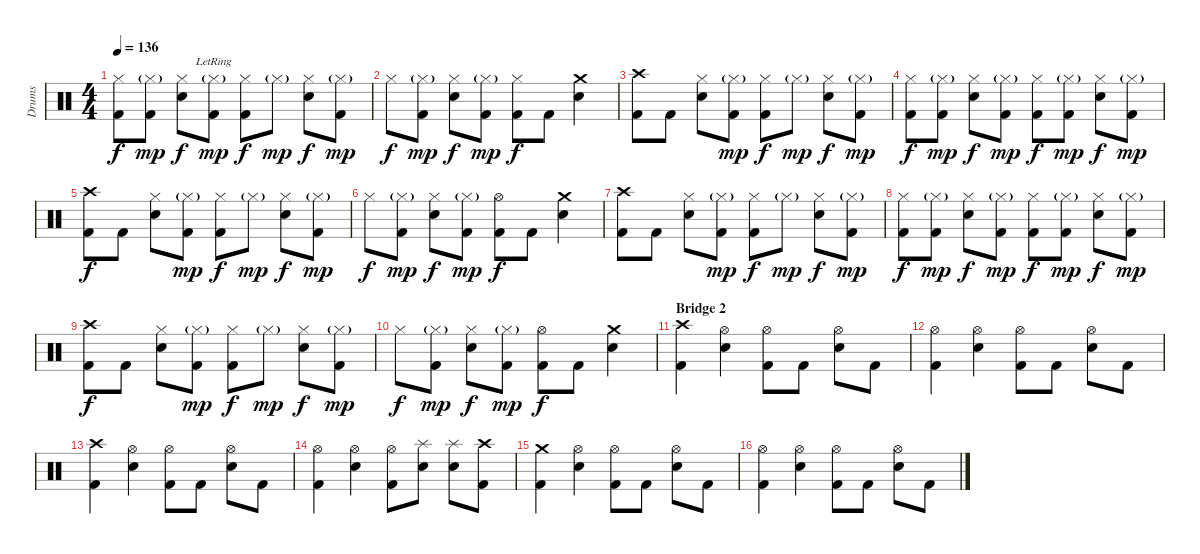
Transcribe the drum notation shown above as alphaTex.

\track ("Drums" "Drums") {instrument percussion}
\staff {score}
\articulation defaults
\ts (4 4)
\tempo 136
\clef neutral
\ks c
("Hi-Hat (closed)" "Kick (hit) 2").8{dy f} ("Hi-Hat (closed)"{g} "Kick (hit) 2").8{dy mp} ("Hi-Hat (closed)" "Snare (hit) 2").8{dy f} ("Hi-Hat (closed)"{g lr} "Kick (hit) 2").8{dy mp} ("Hi-Hat (closed)" "Kick (hit) 2").8{dy f} "Hi-Hat (closed)"{g}.8{dy mp} ("Hi-Hat (closed)" "Snare (hit) 2").8{dy f} ("Hi-Hat (closed)"{g} "Kick (hit) 2").8{dy mp} |
"Hi-Hat (closed)".8{dy f} ("Hi-Hat (closed)"{g} "Kick (hit) 2").8{dy mp} ("Hi-Hat (closed)" "Snare (hit) 2").8{dy f} ("Hi-Hat (closed)"{g} "Kick (hit) 2").8{dy mp} ("Hi-Hat (closed)" "Kick (hit) 2").8{dy f} "Kick (hit) 2".8 ("Crash medium (hit)" "Snare (hit) 2").4 |
("Crash high (hit)" "Kick (hit) 2").8 "Kick (hit) 2".8 ("Hi-Hat (closed)" "Snare (hit) 2").8 ("Hi-Hat (closed)"{g} "Kick (hit) 2").8{dy mp} ("Hi-Hat (closed)" "Kick (hit) 2").8{dy f} "Hi-Hat (closed)"{g}.8{dy mp} ("Hi-Hat (closed)" "Snare (hit) 2").8{dy f} ("Hi-Hat (closed)"{g} "Kick (hit) 2").8{dy mp} |
("Hi-Hat (closed)" "Kick (hit) 2").8{dy f} ("Hi-Hat (closed)"{g} "Kick (hit) 2").8{dy mp} ("Hi-Hat (closed)" "Snare (hit) 2").8{dy f} ("Hi-Hat (closed)"{g} "Kick (hit) 2").8{dy mp} ("Hi-Hat (closed)" "Kick (hit) 2").8{dy f} ("Hi-Hat (closed)"{g} "Kick (hit) 2").8{dy mp} ("Hi-Hat (closed)" "Snare (hit) 2").8{dy f} ("Hi-Hat (closed)"{g} "Kick (hit) 2").8{dy mp} |
("Crash high (hit)" "Kick (hit) 2").8{dy f} "Kick (hit) 2".8 ("Hi-Hat (closed)" "Snare (hit) 2").8 ("Hi-Hat (closed)"{g} "Kick (hit) 2").8{dy mp} ("Hi-Hat (closed)" "Kick (hit) 2").8{dy f} "Hi-Hat (closed)"{g}.8{dy mp} ("Hi-Hat (closed)" "Snare (hit) 2").8{dy f} ("Hi-Hat (closed)"{g} "Kick (hit) 2").8{dy mp} |
"Hi-Hat (closed)".8{dy f} ("Hi-Hat (closed)"{g} "Kick (hit) 2").8{dy mp} ("Hi-Hat (closed)" "Snare (hit) 2").8{dy f} ("Hi-Hat (closed)"{g} "Kick (hit) 2").8{dy mp} ("Hi-Hat (open)" "Kick (hit) 2").8{dy f} "Kick (hit) 2".8 ("Crash medium (hit)" "Snare (hit) 2").4 |
("Crash high (hit)" "Kick (hit) 2").8 "Kick (hit) 2".8 ("Hi-Hat (closed)" "Snare (hit) 2").8 ("Hi-Hat (closed)"{g} "Kick (hit) 2").8{dy mp} ("Hi-Hat (closed)" "Kick (hit) 2").8{dy f} "Hi-Hat (closed)"{g}.8{dy mp} ("Hi-Hat (closed)" "Snare (hit) 2").8{dy f} ("Hi-Hat (closed)"{g} "Kick (hit) 2").8{dy mp} |
("Hi-Hat (closed)" "Kick (hit) 2").8{dy f} ("Hi-Hat (closed)"{g} "Kick (hit) 2").8{dy mp} ("Hi-Hat (closed)" "Snare (hit) 2").8{dy f} ("Hi-Hat (closed)"{g} "Kick (hit) 2").8{dy mp} ("Hi-Hat (closed)" "Kick (hit) 2").8{dy f} ("Hi-Hat (closed)"{g} "Kick (hit) 2").8{dy mp} ("Hi-Hat (closed)" "Snare (hit) 2").8{dy f} ("Hi-Hat (closed)"{g} "Kick (hit) 2").8{dy mp} |
("Crash high (hit)" "Kick (hit) 2").8{dy f} "Kick (hit) 2".8 ("Hi-Hat (closed)" "Snare (hit) 2").8 ("Hi-Hat (closed)"{g} "Kick (hit) 2").8{dy mp} ("Hi-Hat (closed)" "Kick (hit) 2").8{dy f} "Hi-Hat (closed)"{g}.8{dy mp} ("Hi-Hat (closed)" "Snare (hit) 2").8{dy f} ("Hi-Hat (closed)"{g} "Kick (hit) 2").8{dy mp} |
"Hi-Hat (closed)".8{dy f} ("Hi-Hat (closed)"{g} "Kick (hit) 2").8{dy mp} ("Hi-Hat (closed)" "Snare (hit) 2").8{dy f} ("Hi-Hat (closed)"{g} "Kick (hit) 2").8{dy mp} ("Hi-Hat (open)" "Kick (hit) 2").8{dy f} "Kick (hit) 2".8 ("Crash medium (hit)" "Snare (hit) 2").4 |
\section ("" "Bridge 2")
("Crash high (hit)" "Kick (hit) 2").4 ("Hi-Hat (open)" "Snare (hit) 2").4 ("Hi-Hat (open)" "Kick (hit) 2").8 "Kick (hit) 2".8 ("Hi-Hat (open)" "Snare (hit) 2").8 "Kick (hit) 2".8 |
("Hi-Hat (open)" "Kick (hit) 2").4 ("Hi-Hat (open)" "Snare (hit) 2").4 ("Hi-Hat (open)" "Kick (hit) 2").8 "Kick (hit) 2".8 ("Hi-Hat (open)" "Snare (hit) 2").8 "Kick (hit) 2".8 |
("Crash high (hit)" "Kick (hit) 2").4 ("Hi-Hat (open)" "Snare (hit) 2").4 ("Hi-Hat (open)" "Kick (hit) 2").8 "Kick (hit) 2".8 ("Hi-Hat (open)" "Snare (hit) 2").8 "Kick (hit) 2".8 |
("Hi-Hat (open)" "Kick (hit) 2").4 ("Hi-Hat (open)" "Snare (hit) 2").4 ("Hi-Hat (open)" "Kick (hit) 2").8 ("Splash (hit)" "Snare (hit) 2").8 ("Splash (hit)" "Snare (hit) 2").8 ("Crash high (hit)" "Kick (hit) 2").8 |
("Crash medium (hit)" "Kick (hit) 2").4 ("Hi-Hat (open)" "Snare (hit) 2").4 ("Hi-Hat (open)" "Kick (hit) 2").8 "Kick (hit) 2".8 ("Hi-Hat (open)" "Snare (hit) 2").8 "Kick (hit) 2".8 |
("Hi-Hat (open)" "Kick (hit) 2").4 ("Hi-Hat (open)" "Snare (hit) 2").4 ("Hi-Hat (open)" "Kick (hit) 2").8 "Kick (hit) 2".8 ("Hi-Hat (open)" "Snare (hit) 2").8 "Kick (hit) 2".8
